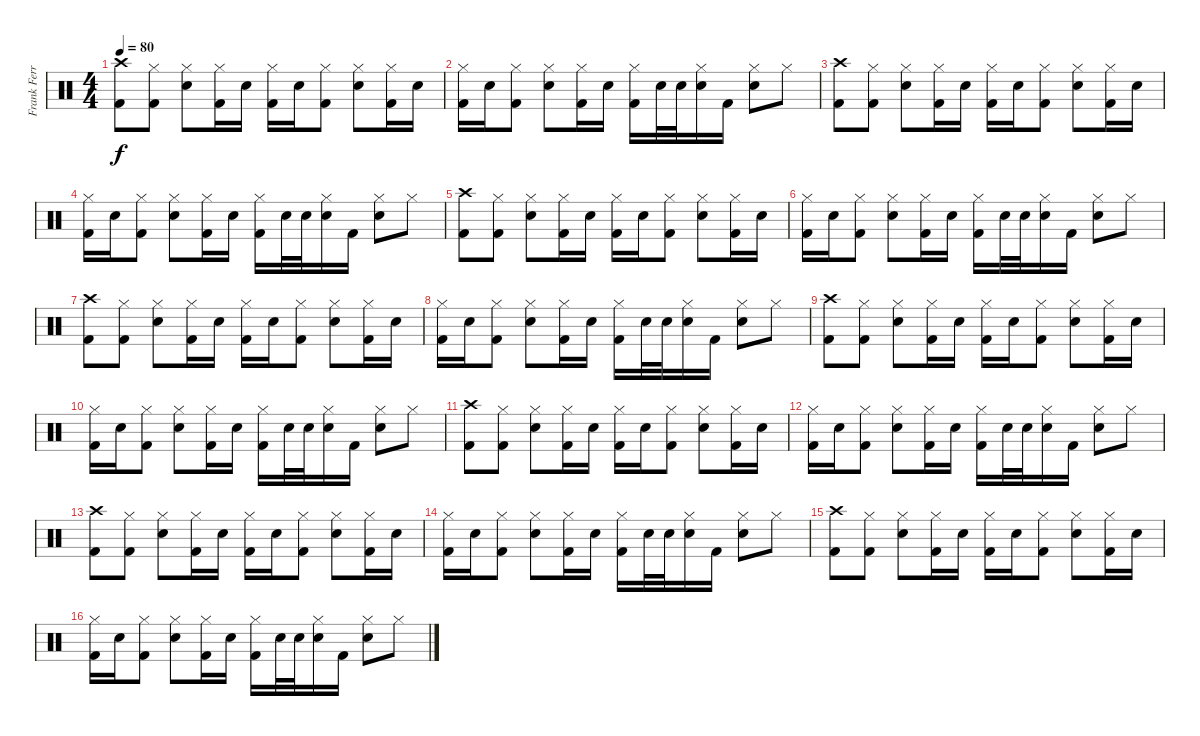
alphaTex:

\track ("Frank Ferrer" "Frank Ferr") {instrument percussion}
\staff {score}
\articulation defaults
\ts (4 4)
\tempo 80
\clef neutral
\ks c
("Crash high (hit)" "Kick (hit) 2").8{dy f} ("Hi-Hat (closed)" "Kick (hit) 2").8 ("Hi-Hat (closed)" "Snare (hit) 2").8 ("Hi-Hat (closed)" "Kick (hit) 2").16 "Snare (hit) 2".16 ("Hi-Hat (closed)" "Kick (hit) 2").16 "Snare (hit) 2".16 ("Hi-Hat (closed)" "Kick (hit) 2").8 ("Hi-Hat (closed)" "Snare (hit) 2").8 ("Hi-Hat (closed)" "Kick (hit) 2").16 "Snare (hit) 2".16 |
("Hi-Hat (closed)" "Kick (hit) 2").16 "Snare (hit) 2".16 ("Hi-Hat (closed)" "Kick (hit) 2").8 ("Hi-Hat (closed)" "Snare (hit) 2").8 ("Hi-Hat (closed)" "Kick (hit) 2").16 "Snare (hit) 2".16 ("Hi-Hat (closed)" "Kick (hit) 2").16 "Snare (hit) 2".32 "Snare (hit) 2".32 ("Hi-Hat (closed)" "Snare (hit) 2").16 "Kick (hit) 2".16 ("Hi-Hat (closed)" "Snare (hit) 2").8 "Hi-Hat (closed)".8 |
("Crash high (hit)" "Kick (hit) 2").8 ("Hi-Hat (closed)" "Kick (hit) 2").8 ("Hi-Hat (closed)" "Snare (hit) 2").8 ("Hi-Hat (closed)" "Kick (hit) 2").16 "Snare (hit) 2".16 ("Hi-Hat (closed)" "Kick (hit) 2").16 "Snare (hit) 2".16 ("Hi-Hat (closed)" "Kick (hit) 2").8 ("Hi-Hat (closed)" "Snare (hit) 2").8 ("Hi-Hat (closed)" "Kick (hit) 2").16 "Snare (hit) 2".16 |
("Hi-Hat (closed)" "Kick (hit) 2").16 "Snare (hit) 2".16 ("Hi-Hat (closed)" "Kick (hit) 2").8 ("Hi-Hat (closed)" "Snare (hit) 2").8 ("Hi-Hat (closed)" "Kick (hit) 2").16 "Snare (hit) 2".16 ("Hi-Hat (closed)" "Kick (hit) 2").16 "Snare (hit) 2".32 "Snare (hit) 2".32 ("Hi-Hat (closed)" "Snare (hit) 2").16 "Kick (hit) 2".16 ("Hi-Hat (closed)" "Snare (hit) 2").8 "Hi-Hat (closed)".8 |
("Crash high (hit)" "Kick (hit) 2").8 ("Hi-Hat (closed)" "Kick (hit) 2").8 ("Hi-Hat (closed)" "Snare (hit) 2").8 ("Hi-Hat (closed)" "Kick (hit) 2").16 "Snare (hit) 2".16 ("Hi-Hat (closed)" "Kick (hit) 2").16 "Snare (hit) 2".16 ("Hi-Hat (closed)" "Kick (hit) 2").8 ("Hi-Hat (closed)" "Snare (hit) 2").8 ("Hi-Hat (closed)" "Kick (hit) 2").16 "Snare (hit) 2".16 |
("Hi-Hat (closed)" "Kick (hit) 2").16 "Snare (hit) 2".16 ("Hi-Hat (closed)" "Kick (hit) 2").8 ("Hi-Hat (closed)" "Snare (hit) 2").8 ("Hi-Hat (closed)" "Kick (hit) 2").16 "Snare (hit) 2".16 ("Hi-Hat (closed)" "Kick (hit) 2").16 "Snare (hit) 2".32 "Snare (hit) 2".32 ("Hi-Hat (closed)" "Snare (hit) 2").16 "Kick (hit) 2".16 ("Hi-Hat (closed)" "Snare (hit) 2").8 "Hi-Hat (closed)".8 |
("Crash high (hit)" "Kick (hit) 2").8 ("Hi-Hat (closed)" "Kick (hit) 2").8 ("Hi-Hat (closed)" "Snare (hit) 2").8 ("Hi-Hat (closed)" "Kick (hit) 2").16 "Snare (hit) 2".16 ("Hi-Hat (closed)" "Kick (hit) 2").16 "Snare (hit) 2".16 ("Hi-Hat (closed)" "Kick (hit) 2").8 ("Hi-Hat (closed)" "Snare (hit) 2").8 ("Hi-Hat (closed)" "Kick (hit) 2").16 "Snare (hit) 2".16 |
("Hi-Hat (closed)" "Kick (hit) 2").16 "Snare (hit) 2".16 ("Hi-Hat (closed)" "Kick (hit) 2").8 ("Hi-Hat (closed)" "Snare (hit) 2").8 ("Hi-Hat (closed)" "Kick (hit) 2").16 "Snare (hit) 2".16 ("Hi-Hat (closed)" "Kick (hit) 2").16 "Snare (hit) 2".32 "Snare (hit) 2".32 ("Hi-Hat (closed)" "Snare (hit) 2").16 "Kick (hit) 2".16 ("Hi-Hat (closed)" "Snare (hit) 2").8 "Hi-Hat (closed)".8 |
("Crash high (hit)" "Kick (hit) 2").8 ("Hi-Hat (closed)" "Kick (hit) 2").8 ("Hi-Hat (closed)" "Snare (hit) 2").8 ("Hi-Hat (closed)" "Kick (hit) 2").16 "Snare (hit) 2".16 ("Hi-Hat (closed)" "Kick (hit) 2").16 "Snare (hit) 2".16 ("Hi-Hat (closed)" "Kick (hit) 2").8 ("Hi-Hat (closed)" "Snare (hit) 2").8 ("Hi-Hat (closed)" "Kick (hit) 2").16 "Snare (hit) 2".16 |
("Hi-Hat (closed)" "Kick (hit) 2").16 "Snare (hit) 2".16 ("Hi-Hat (closed)" "Kick (hit) 2").8 ("Hi-Hat (closed)" "Snare (hit) 2").8 ("Hi-Hat (closed)" "Kick (hit) 2").16 "Snare (hit) 2".16 ("Hi-Hat (closed)" "Kick (hit) 2").16 "Snare (hit) 2".32 "Snare (hit) 2".32 ("Hi-Hat (closed)" "Snare (hit) 2").16 "Kick (hit) 2".16 ("Hi-Hat (closed)" "Snare (hit) 2").8 "Hi-Hat (closed)".8 |
("Crash high (hit)" "Kick (hit) 2").8 ("Hi-Hat (closed)" "Kick (hit) 2").8 ("Hi-Hat (closed)" "Snare (hit) 2").8 ("Hi-Hat (closed)" "Kick (hit) 2").16 "Snare (hit) 2".16 ("Hi-Hat (closed)" "Kick (hit) 2").16 "Snare (hit) 2".16 ("Hi-Hat (closed)" "Kick (hit) 2").8 ("Hi-Hat (closed)" "Snare (hit) 2").8 ("Hi-Hat (closed)" "Kick (hit) 2").16 "Snare (hit) 2".16 |
("Hi-Hat (closed)" "Kick (hit) 2").16 "Snare (hit) 2".16 ("Hi-Hat (closed)" "Kick (hit) 2").8 ("Hi-Hat (closed)" "Snare (hit) 2").8 ("Hi-Hat (closed)" "Kick (hit) 2").16 "Snare (hit) 2".16 ("Hi-Hat (closed)" "Kick (hit) 2").16 "Snare (hit) 2".32 "Snare (hit) 2".32 ("Hi-Hat (closed)" "Snare (hit) 2").16 "Kick (hit) 2".16 ("Hi-Hat (closed)" "Snare (hit) 2").8 "Hi-Hat (closed)".8 |
("Crash high (hit)" "Kick (hit) 2").8 ("Hi-Hat (closed)" "Kick (hit) 2").8 ("Hi-Hat (closed)" "Snare (hit) 2").8 ("Hi-Hat (closed)" "Kick (hit) 2").16 "Snare (hit) 2".16 ("Hi-Hat (closed)" "Kick (hit) 2").16 "Snare (hit) 2".16 ("Hi-Hat (closed)" "Kick (hit) 2").8 ("Hi-Hat (closed)" "Snare (hit) 2").8 ("Hi-Hat (closed)" "Kick (hit) 2").16 "Snare (hit) 2".16 |
("Hi-Hat (closed)" "Kick (hit) 2").16 "Snare (hit) 2".16 ("Hi-Hat (closed)" "Kick (hit) 2").8 ("Hi-Hat (closed)" "Snare (hit) 2").8 ("Hi-Hat (closed)" "Kick (hit) 2").16 "Snare (hit) 2".16 ("Hi-Hat (closed)" "Kick (hit) 2").16 "Snare (hit) 2".32 "Snare (hit) 2".32 ("Hi-Hat (closed)" "Snare (hit) 2").16 "Kick (hit) 2".16 ("Hi-Hat (closed)" "Snare (hit) 2").8 "Hi-Hat (closed)".8 |
("Crash high (hit)" "Kick (hit) 2").8 ("Hi-Hat (closed)" "Kick (hit) 2").8 ("Hi-Hat (closed)" "Snare (hit) 2").8 ("Hi-Hat (closed)" "Kick (hit) 2").16 "Snare (hit) 2".16 ("Hi-Hat (closed)" "Kick (hit) 2").16 "Snare (hit) 2".16 ("Hi-Hat (closed)" "Kick (hit) 2").8 ("Hi-Hat (closed)" "Snare (hit) 2").8 ("Hi-Hat (closed)" "Kick (hit) 2").16 "Snare (hit) 2".16 |
("Hi-Hat (closed)" "Kick (hit) 2").16 "Snare (hit) 2".16 ("Hi-Hat (closed)" "Kick (hit) 2").8 ("Hi-Hat (closed)" "Snare (hit) 2").8 ("Hi-Hat (closed)" "Kick (hit) 2").16 "Snare (hit) 2".16 ("Hi-Hat (closed)" "Kick (hit) 2").16 "Snare (hit) 2".32 "Snare (hit) 2".32 ("Hi-Hat (closed)" "Snare (hit) 2").16 "Kick (hit) 2".16 ("Hi-Hat (closed)" "Snare (hit) 2").8 "Hi-Hat (closed)".8
